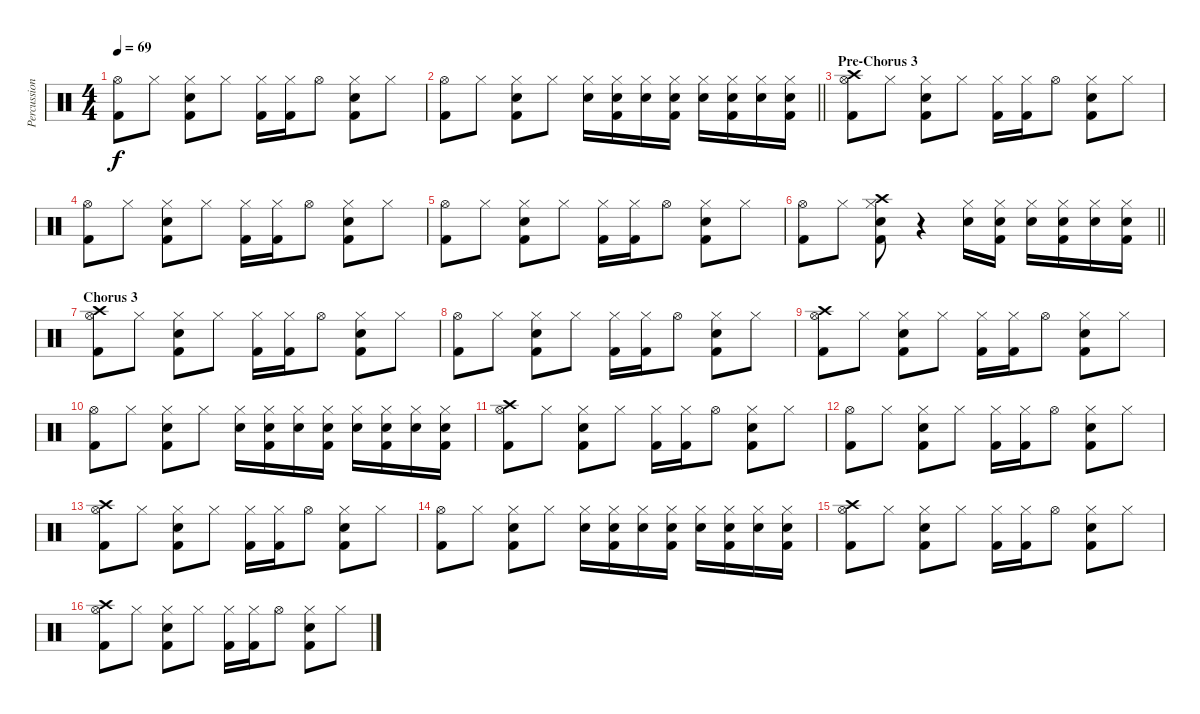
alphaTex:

\track ("Percussion: Mark Williams" "Percussion") {instrument percussion}
\staff {score}
\articulation defaults
\ts (4 4)
\tempo 69
\clef neutral
\ks c
("Hi-Hat (open)" "Kick (hit) 2").8{dy f} "Hi-Hat (closed)".8 ("Hi-Hat (closed)" "Snare (hit) 2" "Kick (hit) 2").8 "Hi-Hat (closed)".8 ("Hi-Hat (closed)" "Kick (hit) 2").16 ("Hi-Hat (closed)" "Kick (hit) 2").16 "Hi-Hat (open)".8 ("Hi-Hat (closed)" "Snare (hit) 2" "Kick (hit) 2").8 "Hi-Hat (closed)".8 |
\barLineRight lightlight
("Hi-Hat (open)" "Kick (hit) 2").8 "Hi-Hat (closed)".8 ("Hi-Hat (closed)" "Snare (hit) 2" "Kick (hit) 2").8 "Hi-Hat (closed)".8 ("Hi-Hat (closed)" "Snare (hit) 2").16 ("Hi-Hat (closed)" "Snare (hit) 2" "Kick (hit) 2").16 ("Hi-Hat (closed)" "Snare (hit) 2").16 ("Hi-Hat (closed)" "Snare (hit) 2" "Kick (hit) 2").16 ("Hi-Hat (closed)" "Snare (hit) 2").16 ("Hi-Hat (closed)" "Snare (hit) 2" "Kick (hit) 2").16 ("Hi-Hat (closed)" "Snare (hit) 2").16 ("Hi-Hat (closed)" "Snare (hit) 2" "Kick (hit) 2").16 |
\section ("" "Pre-Chorus 3")
("Crash high (hit)" "Hi-Hat (open)" "Kick (hit) 2").8 "Hi-Hat (closed)".8 ("Hi-Hat (closed)" "Snare (hit) 2" "Kick (hit) 2").8 "Hi-Hat (closed)".8 ("Hi-Hat (closed)" "Kick (hit) 2").16 ("Hi-Hat (closed)" "Kick (hit) 2").16 "Hi-Hat (open)".8 ("Hi-Hat (closed)" "Snare (hit) 2" "Kick (hit) 2").8 "Hi-Hat (closed)".8 |
("Hi-Hat (open)" "Kick (hit) 2").8 "Hi-Hat (closed)".8 ("Hi-Hat (closed)" "Snare (hit) 2" "Kick (hit) 2").8 "Hi-Hat (closed)".8 ("Hi-Hat (closed)" "Kick (hit) 2").16 ("Hi-Hat (closed)" "Kick (hit) 2").16 "Hi-Hat (open)".8 ("Hi-Hat (closed)" "Snare (hit) 2" "Kick (hit) 2").8 "Hi-Hat (closed)".8 |
("Hi-Hat (open)" "Kick (hit) 2").8 "Hi-Hat (closed)".8 ("Hi-Hat (closed)" "Snare (hit) 2" "Kick (hit) 2").8 "Hi-Hat (closed)".8 ("Hi-Hat (closed)" "Kick (hit) 2").16 ("Hi-Hat (closed)" "Kick (hit) 2").16 "Hi-Hat (open)".8 ("Hi-Hat (closed)" "Snare (hit) 2" "Kick (hit) 2").8 "Hi-Hat (closed)".8 |
\barLineRight lightlight
("Hi-Hat (open)" "Kick (hit) 2").8 "Hi-Hat (closed)".8 ("Crash high (hit)" "Hi-Hat (closed)" "Snare (hit) 2" "Kick (hit) 2").8 r.4 ("Hi-Hat (closed)" "Snare (hit) 2").16 ("Hi-Hat (closed)" "Snare (hit) 2" "Kick (hit) 2").16 ("Hi-Hat (closed)" "Snare (hit) 2").16 ("Hi-Hat (closed)" "Snare (hit) 2" "Kick (hit) 2").16 ("Hi-Hat (closed)" "Snare (hit) 2").16 ("Hi-Hat (closed)" "Snare (hit) 2" "Kick (hit) 2").16 |
\section ("" "Chorus 3")
("Crash high (hit)" "Hi-Hat (open)" "Kick (hit) 2").8 "Hi-Hat (closed)".8 ("Hi-Hat (closed)" "Snare (hit) 2" "Kick (hit) 2").8 "Hi-Hat (closed)".8 ("Hi-Hat (closed)" "Kick (hit) 2").16 ("Hi-Hat (closed)" "Kick (hit) 2").16 "Hi-Hat (open)".8 ("Hi-Hat (closed)" "Snare (hit) 2" "Kick (hit) 2").8 "Hi-Hat (closed)".8 |
("Hi-Hat (open)" "Kick (hit) 2").8 "Hi-Hat (closed)".8 ("Hi-Hat (closed)" "Snare (hit) 2" "Kick (hit) 2").8 "Hi-Hat (closed)".8 ("Hi-Hat (closed)" "Kick (hit) 2").16 ("Hi-Hat (closed)" "Kick (hit) 2").16 "Hi-Hat (open)".8 ("Hi-Hat (closed)" "Snare (hit) 2" "Kick (hit) 2").8 "Hi-Hat (closed)".8 |
("Crash high (hit)" "Hi-Hat (open)" "Kick (hit) 2").8 "Hi-Hat (closed)".8 ("Hi-Hat (closed)" "Snare (hit) 2" "Kick (hit) 2").8 "Hi-Hat (closed)".8 ("Hi-Hat (closed)" "Kick (hit) 2").16 ("Hi-Hat (closed)" "Kick (hit) 2").16 "Hi-Hat (open)".8 ("Hi-Hat (closed)" "Snare (hit) 2" "Kick (hit) 2").8 "Hi-Hat (closed)".8 |
("Hi-Hat (open)" "Kick (hit) 2").8 "Hi-Hat (closed)".8 ("Hi-Hat (closed)" "Snare (hit) 2" "Kick (hit) 2").8 "Hi-Hat (closed)".8 ("Hi-Hat (closed)" "Snare (hit) 2").16 ("Hi-Hat (closed)" "Snare (hit) 2" "Kick (hit) 2").16 ("Hi-Hat (closed)" "Snare (hit) 2").16 ("Hi-Hat (closed)" "Snare (hit) 2" "Kick (hit) 2").16 ("Hi-Hat (closed)" "Snare (hit) 2").16 ("Hi-Hat (closed)" "Snare (hit) 2" "Kick (hit) 2").16 ("Hi-Hat (closed)" "Snare (hit) 2").16 ("Hi-Hat (closed)" "Snare (hit) 2" "Kick (hit) 2").16 |
("Crash high (hit)" "Hi-Hat (open)" "Kick (hit) 2").8 "Hi-Hat (closed)".8 ("Hi-Hat (closed)" "Snare (hit) 2" "Kick (hit) 2").8 "Hi-Hat (closed)".8 ("Hi-Hat (closed)" "Kick (hit) 2").16 ("Hi-Hat (closed)" "Kick (hit) 2").16 "Hi-Hat (open)".8 ("Hi-Hat (closed)" "Snare (hit) 2" "Kick (hit) 2").8 "Hi-Hat (closed)".8 |
("Hi-Hat (open)" "Kick (hit) 2").8 "Hi-Hat (closed)".8 ("Hi-Hat (closed)" "Snare (hit) 2" "Kick (hit) 2").8 "Hi-Hat (closed)".8 ("Hi-Hat (closed)" "Kick (hit) 2").16 ("Hi-Hat (closed)" "Kick (hit) 2").16 "Hi-Hat (open)".8 ("Hi-Hat (closed)" "Snare (hit) 2" "Kick (hit) 2").8 "Hi-Hat (closed)".8 |
("Crash high (hit)" "Hi-Hat (open)" "Kick (hit) 2").8 "Hi-Hat (closed)".8 ("Hi-Hat (closed)" "Snare (hit) 2" "Kick (hit) 2").8 "Hi-Hat (closed)".8 ("Hi-Hat (closed)" "Kick (hit) 2").16 ("Hi-Hat (closed)" "Kick (hit) 2").16 "Hi-Hat (open)".8 ("Hi-Hat (closed)" "Snare (hit) 2" "Kick (hit) 2").8 "Hi-Hat (closed)".8 |
("Hi-Hat (open)" "Kick (hit) 2").8 "Hi-Hat (closed)".8 ("Hi-Hat (closed)" "Snare (hit) 2" "Kick (hit) 2").8 "Hi-Hat (closed)".8 ("Hi-Hat (closed)" "Snare (hit) 2").16 ("Hi-Hat (closed)" "Snare (hit) 2" "Kick (hit) 2").16 ("Hi-Hat (closed)" "Snare (hit) 2").16 ("Hi-Hat (closed)" "Snare (hit) 2" "Kick (hit) 2").16 ("Hi-Hat (closed)" "Snare (hit) 2").16 ("Hi-Hat (closed)" "Snare (hit) 2" "Kick (hit) 2").16 ("Hi-Hat (closed)" "Snare (hit) 2").16 ("Hi-Hat (closed)" "Snare (hit) 2" "Kick (hit) 2").16 |
("Crash high (hit)" "Hi-Hat (open)" "Kick (hit) 2").8 "Hi-Hat (closed)".8 ("Hi-Hat (closed)" "Snare (hit) 2" "Kick (hit) 2").8 "Hi-Hat (closed)".8 ("Hi-Hat (closed)" "Kick (hit) 2").16 ("Hi-Hat (closed)" "Kick (hit) 2").16 "Hi-Hat (open)".8 ("Hi-Hat (closed)" "Snare (hit) 2" "Kick (hit) 2").8 "Hi-Hat (closed)".8 |
("Crash high (hit)" "Hi-Hat (open)" "Kick (hit) 2").8 "Hi-Hat (closed)".8 ("Hi-Hat (closed)" "Snare (hit) 2" "Kick (hit) 2").8 "Hi-Hat (closed)".8 ("Hi-Hat (closed)" "Kick (hit) 2").16 ("Hi-Hat (closed)" "Kick (hit) 2").16 "Hi-Hat (open)".8 ("Hi-Hat (closed)" "Snare (hit) 2" "Kick (hit) 2").8 "Hi-Hat (closed)".8
